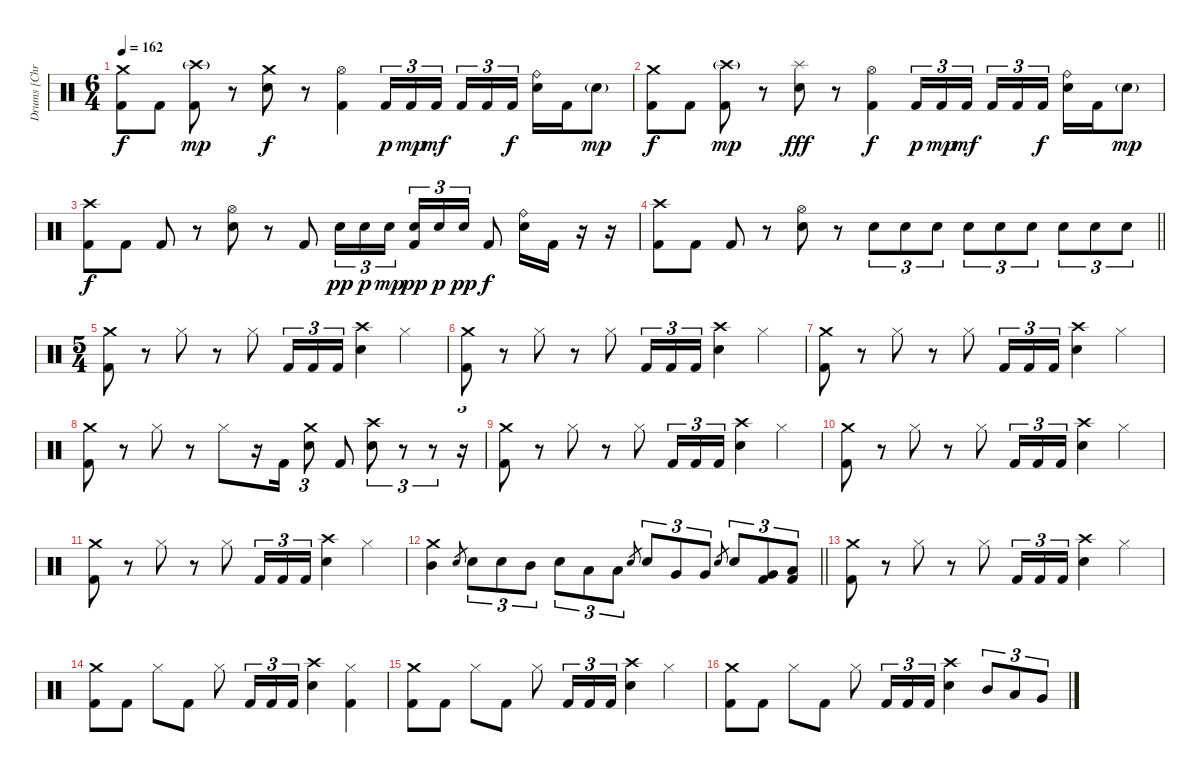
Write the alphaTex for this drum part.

\track ("Drums [Chris Maitland]" "Drums [Chr") {instrument percussion}
\staff {score}
\articulation defaults
\ts (6 4)
\tempo 162
\clef neutral
\ks c
("Crash medium (hit)" "Kick (hit) 2").8{dy f} "Kick (hit) 2".8 ("Crash high (hit)"{g} "Kick (hit) 2").8{dy mp} r.8 ("Crash medium (hit)" "Electric Snare (hit)").8{dy f} r.8 ("Hi-Hat (open)" "Kick (hit) 2").4 "Kick (hit) 2".16{tu (3 2) dy p} "Kick (hit) 2".16{tu (3 2) dy mp} "Kick (hit) 2".16{tu (3 2) dy mf beam splitsecondary} "Kick (hit) 2".16{tu (3 2)} "Kick (hit) 2".16{tu (3 2)} "Kick (hit) 2".16{tu (3 2) dy f beam splitsecondary} ("Ride (bell)" "Electric Snare (hit)").16 "Kick (hit) 2".16 "Electric Snare (hit)"{g}.8{dy mp} |
("Crash medium (hit)" "Kick (hit) 2").8{dy f} "Kick (hit) 2".8 ("Crash high (hit)"{g} "Kick (hit) 2").8{dy mp} r.8 ("Splash (hit)" "Electric Snare (hit)").8{dy fff} r.8 ("Hi-Hat (open)" "Kick (hit) 2").4{dy f} "Kick (hit) 2".16{tu (3 2) dy p} "Kick (hit) 2".16{tu (3 2) dy mp} "Kick (hit) 2".16{tu (3 2) dy mf beam splitsecondary} "Kick (hit) 2".16{tu (3 2)} "Kick (hit) 2".16{tu (3 2)} "Kick (hit) 2".16{tu (3 2) dy f beam splitsecondary} ("Ride (bell)" "Electric Snare (hit)").16 "Kick (hit) 2".16 "Electric Snare (hit)"{g}.8{dy mp} |
("Crash high (hit)" "Kick (hit) 2").8{dy f} "Kick (hit) 2".8 "Kick (hit) 2".8 r.8 ("Hi-Hat (open)" "Electric Snare (hit)").8 r.8 "Kick (hit) 2".8 "Electric Snare (hit)".16{tu (3 2) dy pp} "Electric Snare (hit)".16{tu (3 2) dy p} "Electric Snare (hit)".16{tu (3 2) dy mp beam splitsecondary} ("Electric Snare (hit)" "Kick (hit) 2").16{tu (3 2) dy pp} "Electric Snare (hit)".16{tu (3 2) dy p} "Electric Snare (hit)".16{tu (3 2) dy pp} "Kick (hit) 2".8{dy f} ("Ride (bell)" "Electric Snare (hit)").16 "Kick (hit) 2".16 r.16 r.16 |
\barLineRight lightlight
("Crash high (hit)" "Kick (hit) 2").8 "Kick (hit) 2".8 "Kick (hit) 2".8 r.8 ("Hi-Hat (open)" "Electric Snare (hit)").8 r.8 "Electric Snare (hit)".8{tu (3 2)} "Electric Snare (hit)".8{tu (3 2)} "Electric Snare (hit)".8{tu (3 2)} "Electric Snare (hit)".8{tu (3 2)} "Electric Snare (hit)".8{tu (3 2)} "Electric Snare (hit)".8{tu (3 2)} "Electric Snare (hit)".8{tu (3 2)} "Electric Snare (hit)".8{tu (3 2)} "Electric Snare (hit)".8{tu (3 2)} |
\ts (5 4)
\section ("" "")
("Crash medium (hit)" "Kick (hit) 2").8 r.8 "Hi-Hat (closed)".8 r.8 "Hi-Hat (closed)".8 "Kick (hit) 2".16{tu (3 2)} "Kick (hit) 2".16{tu (3 2)} "Kick (hit) 2".16{tu (3 2)} ("Crash high (hit)" "Electric Snare (hit)").4 "Hi-Hat (closed)".4 |
("Crash medium (hit)" "Kick (hit) 2").8 r.8 "Hi-Hat (closed)".8 r.8 "Hi-Hat (closed)".8 "Kick (hit) 2".16{tu (3 2)} "Kick (hit) 2".16{tu (3 2)} "Kick (hit) 2".16{tu (3 2)} ("Crash high (hit)" "Electric Snare (hit)").4 "Hi-Hat (closed)".4 |
("Crash medium (hit)" "Kick (hit) 2").8 r.8 "Hi-Hat (closed)".8 r.8 "Hi-Hat (closed)".8 "Kick (hit) 2".16{tu (3 2)} "Kick (hit) 2".16{tu (3 2)} "Kick (hit) 2".16{tu (3 2)} ("Crash high (hit)" "Electric Snare (hit)").4 "Hi-Hat (closed)".4 |
("Crash medium (hit)" "Kick (hit) 2").8 r.8 "Hi-Hat (closed)".8 r.8 "Hi-Hat (closed)".8 r.16 "Kick (hit) 2".16 ("Electric Snare (hit)" "Crash medium (hit)").8{tu (3 2)} "Kick (hit) 2".8 ("Electric Snare (hit)" "Crash high (hit)").8{tu (3 2)} r.8{tu (3 2)} r.8{tu (3 2)} r.16{tu (3 2)} |
("Crash medium (hit)" "Kick (hit) 2").8 r.8 "Hi-Hat (closed)".8 r.8 "Hi-Hat (closed)".8 "Kick (hit) 2".16{tu (3 2)} "Kick (hit) 2".16{tu (3 2)} "Kick (hit) 2".16{tu (3 2)} ("Crash high (hit)" "Electric Snare (hit)").4 "Hi-Hat (closed)".4 |
("Crash medium (hit)" "Kick (hit) 2").8 r.8 "Hi-Hat (closed)".8 r.8 "Hi-Hat (closed)".8 "Kick (hit) 2".16{tu (3 2)} "Kick (hit) 2".16{tu (3 2)} "Kick (hit) 2".16{tu (3 2)} ("Crash high (hit)" "Electric Snare (hit)").4 "Hi-Hat (closed)".4 |
("Crash medium (hit)" "Kick (hit) 2").8 r.8 "Hi-Hat (closed)".8 r.8 "Hi-Hat (closed)".8 "Kick (hit) 2".16{tu (3 2)} "Kick (hit) 2".16{tu (3 2)} "Kick (hit) 2".16{tu (3 2)} ("Crash high (hit)" "Electric Snare (hit)").4 "Hi-Hat (closed)".4 |
\barLineRight lightlight
("Crash medium (hit)" "Mid Tom (hit)").4 "Electric Snare (hit)".8{gr} "Electric Snare (hit)".8{tu (3 2)} "Electric Snare (hit)".8{tu (3 2)} "Mid Tom (hit)".8{tu (3 2)} "Electric Snare (hit)".8{tu (3 2)} "Low Tom (hit)".8{tu (3 2)} "Low Tom (hit)".8{tu (3 2)} "Electric Snare (hit)".8{gr} "Electric Snare (hit)".8{tu (3 2)} "Very Low Tom (hit)".8{tu (3 2)} "Very Low Tom (hit)".8{tu (3 2)} "Electric Snare (hit)".8{gr} "Electric Snare (hit)".8{tu (3 2)} ("Very Low Tom (hit)" "Kick (hit) 2").8{tu (3 2)} ("Low Floor Tom (hit)" "Kick (hit) 2").8{tu (3 2)} |
\section ("" "")
("Crash medium (hit)" "Kick (hit) 2").8 r.8 "Hi-Hat (closed)".8 r.8 "Hi-Hat (closed)".8 "Kick (hit) 2".16{tu (3 2)} "Kick (hit) 2".16{tu (3 2)} "Kick (hit) 2".16{tu (3 2)} ("Crash high (hit)" "Electric Snare (hit)").4 "Hi-Hat (closed)".4 |
("Crash medium (hit)" "Kick (hit) 2").8 "Kick (hit) 2".8 "Hi-Hat (closed)".8 "Kick (hit) 2".8 "Hi-Hat (closed)".8 "Kick (hit) 2".16{tu (3 2)} "Kick (hit) 2".16{tu (3 2)} "Kick (hit) 2".16{tu (3 2)} ("Crash high (hit)" "Electric Snare (hit)").4 ("Hi-Hat (closed)" "Kick (hit) 2").4 |
("Crash medium (hit)" "Kick (hit) 2").8 "Kick (hit) 2".8 "Hi-Hat (closed)".8 "Kick (hit) 2".8 "Hi-Hat (closed)".8 "Kick (hit) 2".16{tu (3 2)} "Kick (hit) 2".16{tu (3 2)} "Kick (hit) 2".16{tu (3 2)} ("Crash high (hit)" "Electric Snare (hit)").4 "Hi-Hat (closed)".4 |
("Crash medium (hit)" "Kick (hit) 2").8 "Kick (hit) 2".8 "Hi-Hat (closed)".8 "Kick (hit) 2".8 "Hi-Hat (closed)".8 "Kick (hit) 2".16{tu (3 2)} "Kick (hit) 2".16{tu (3 2)} "Kick (hit) 2".16{tu (3 2)} ("Crash high (hit)" "Electric Snare (hit)").4 "Mid Tom (hit)".8{tu (3 2)} "Low Tom (hit)".8{tu (3 2)} "Very Low Tom (hit)".8{tu (3 2)}
